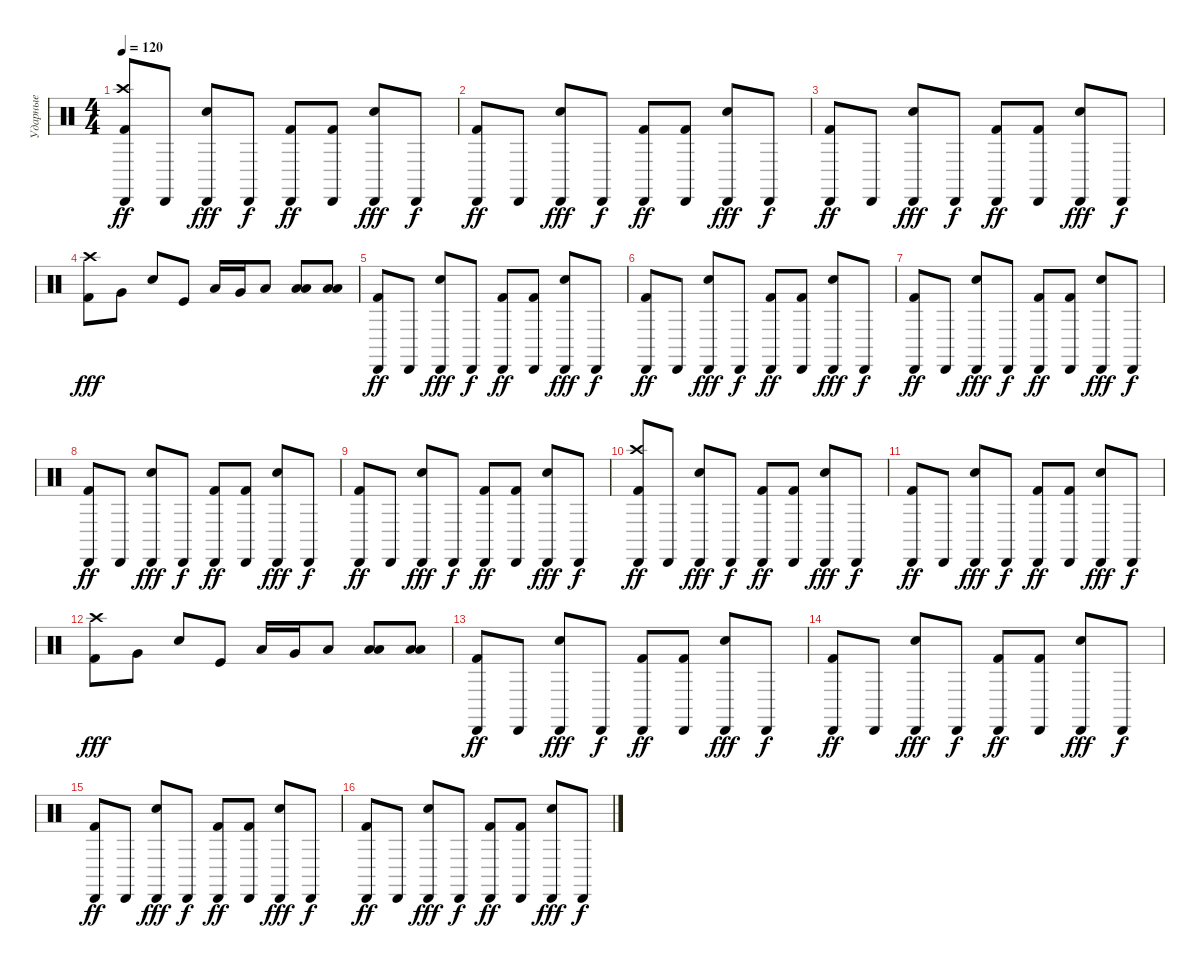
\track ("Ударные" "Ударные") {instrument percussion}
\staff {score}
\articulation defaults
\ts (4 4)
\tempo 120
\clef neutral
\ks c
("Cabasa (hit)" "Kick (hit) 2" "Crash high (hit)").8{dy ff} "Cabasa (hit)".8 ("Snare (hit) 2" "Cabasa (hit)").8{dy fff} "Cabasa (hit)".8{dy f} ("Cabasa (hit)" "Kick (hit) 2").8{dy ff} ("Cabasa (hit)" "Kick (hit) 2").8 ("Snare (hit) 2" "Cabasa (hit)").8{dy fff} "Cabasa (hit)".8{dy f} |
("Cabasa (hit)" "Kick (hit) 2").8{dy ff} "Cabasa (hit)".8 ("Snare (hit) 2" "Cabasa (hit)").8{dy fff} "Cabasa (hit)".8{dy f} ("Cabasa (hit)" "Kick (hit) 2").8{dy ff} ("Cabasa (hit)" "Kick (hit) 2").8 ("Snare (hit) 2" "Cabasa (hit)").8{dy fff} "Cabasa (hit)".8{dy f} |
("Cabasa (hit)" "Kick (hit) 2").8{dy ff} "Cabasa (hit)".8 ("Snare (hit) 2" "Cabasa (hit)").8{dy fff} "Cabasa (hit)".8{dy f} ("Cabasa (hit)" "Kick (hit) 2").8{dy ff} ("Cabasa (hit)" "Kick (hit) 2").8 ("Snare (hit) 2" "Cabasa (hit)").8{dy fff} "Cabasa (hit)".8{dy f} |
("Crash high (hit)" "Kick (hit) 2").8{dy fff} "Very Low Tom (hit)".8 "Electric Snare (hit)".8 "Kick (hit)".8 "Low Tom (hit)".16 "Very Low Tom (hit)".16 "Low Tom (hit)".8 ("Low Floor Tom (hit)" "Low Tom (hit)").8 ("Low Floor Tom (hit)" "Low Tom (hit)").8 |
("Cabasa (hit)" "Kick (hit) 2").8{dy ff} "Cabasa (hit)".8 ("Snare (hit) 2" "Cabasa (hit)").8{dy fff} "Cabasa (hit)".8{dy f} ("Cabasa (hit)" "Kick (hit) 2").8{dy ff} ("Cabasa (hit)" "Kick (hit) 2").8 ("Snare (hit) 2" "Cabasa (hit)").8{dy fff} "Cabasa (hit)".8{dy f} |
("Cabasa (hit)" "Kick (hit) 2").8{dy ff} "Cabasa (hit)".8 ("Snare (hit) 2" "Cabasa (hit)").8{dy fff} "Cabasa (hit)".8{dy f} ("Cabasa (hit)" "Kick (hit) 2").8{dy ff} ("Cabasa (hit)" "Kick (hit) 2").8 ("Snare (hit) 2" "Cabasa (hit)").8{dy fff} "Cabasa (hit)".8{dy f} |
("Cabasa (hit)" "Kick (hit) 2").8{dy ff} "Cabasa (hit)".8 ("Snare (hit) 2" "Cabasa (hit)").8{dy fff} "Cabasa (hit)".8{dy f} ("Cabasa (hit)" "Kick (hit) 2").8{dy ff} ("Cabasa (hit)" "Kick (hit) 2").8 ("Snare (hit) 2" "Cabasa (hit)").8{dy fff} "Cabasa (hit)".8{dy f} |
("Cabasa (hit)" "Kick (hit) 2").8{dy ff} "Cabasa (hit)".8 ("Snare (hit) 2" "Cabasa (hit)").8{dy fff} "Cabasa (hit)".8{dy f} ("Cabasa (hit)" "Kick (hit) 2").8{dy ff} ("Cabasa (hit)" "Kick (hit) 2").8 ("Snare (hit) 2" "Cabasa (hit)").8{dy fff} "Cabasa (hit)".8{dy f} |
("Cabasa (hit)" "Kick (hit) 2").8{dy ff} "Cabasa (hit)".8 ("Snare (hit) 2" "Cabasa (hit)").8{dy fff} "Cabasa (hit)".8{dy f} ("Cabasa (hit)" "Kick (hit) 2").8{dy ff} ("Cabasa (hit)" "Kick (hit) 2").8 ("Snare (hit) 2" "Cabasa (hit)").8{dy fff} "Cabasa (hit)".8{dy f} |
("Cabasa (hit)" "Kick (hit) 2" "Crash high (hit)").8{dy ff} "Cabasa (hit)".8 ("Snare (hit) 2" "Cabasa (hit)").8{dy fff} "Cabasa (hit)".8{dy f} ("Cabasa (hit)" "Kick (hit) 2").8{dy ff} ("Cabasa (hit)" "Kick (hit) 2").8 ("Snare (hit) 2" "Cabasa (hit)").8{dy fff} "Cabasa (hit)".8{dy f} |
("Cabasa (hit)" "Kick (hit) 2").8{dy ff} "Cabasa (hit)".8 ("Snare (hit) 2" "Cabasa (hit)").8{dy fff} "Cabasa (hit)".8{dy f} ("Cabasa (hit)" "Kick (hit) 2").8{dy ff} ("Cabasa (hit)" "Kick (hit) 2").8 ("Snare (hit) 2" "Cabasa (hit)").8{dy fff} "Cabasa (hit)".8{dy f} |
("Crash high (hit)" "Kick (hit) 2").8{dy fff} "Very Low Tom (hit)".8 "Electric Snare (hit)".8 "Kick (hit)".8 "Low Tom (hit)".16 "Very Low Tom (hit)".16 "Low Tom (hit)".8 ("Low Floor Tom (hit)" "Low Tom (hit)").8 ("Low Floor Tom (hit)" "Low Tom (hit)").8 |
("Cabasa (hit)" "Kick (hit) 2").8{dy ff} "Cabasa (hit)".8 ("Snare (hit) 2" "Cabasa (hit)").8{dy fff} "Cabasa (hit)".8{dy f} ("Cabasa (hit)" "Kick (hit) 2").8{dy ff} ("Cabasa (hit)" "Kick (hit) 2").8 ("Snare (hit) 2" "Cabasa (hit)").8{dy fff} "Cabasa (hit)".8{dy f} |
("Cabasa (hit)" "Kick (hit) 2").8{dy ff} "Cabasa (hit)".8 ("Snare (hit) 2" "Cabasa (hit)").8{dy fff} "Cabasa (hit)".8{dy f} ("Cabasa (hit)" "Kick (hit) 2").8{dy ff} ("Cabasa (hit)" "Kick (hit) 2").8 ("Snare (hit) 2" "Cabasa (hit)").8{dy fff} "Cabasa (hit)".8{dy f} |
("Cabasa (hit)" "Kick (hit) 2").8{dy ff} "Cabasa (hit)".8 ("Snare (hit) 2" "Cabasa (hit)").8{dy fff} "Cabasa (hit)".8{dy f} ("Cabasa (hit)" "Kick (hit) 2").8{dy ff} ("Cabasa (hit)" "Kick (hit) 2").8 ("Snare (hit) 2" "Cabasa (hit)").8{dy fff} "Cabasa (hit)".8{dy f} |
("Cabasa (hit)" "Kick (hit) 2").8{dy ff} "Cabasa (hit)".8 ("Snare (hit) 2" "Cabasa (hit)").8{dy fff} "Cabasa (hit)".8{dy f} ("Cabasa (hit)" "Kick (hit) 2").8{dy ff} ("Cabasa (hit)" "Kick (hit) 2").8 ("Snare (hit) 2" "Cabasa (hit)").8{dy fff} "Cabasa (hit)".8{dy f}
